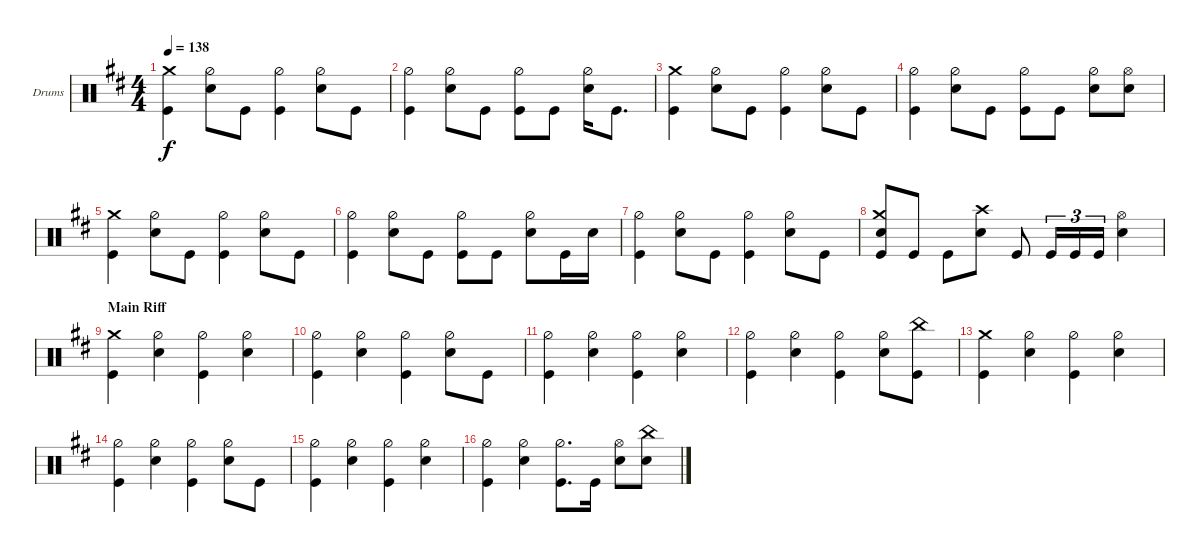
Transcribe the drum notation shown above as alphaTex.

\defaultSystemsLayout 4
\bracketExtendMode groupsimilarinstruments
\firstSystemTrackNameOrientation horizontal
\otherSystemsTrackNameOrientation horizontal
\track ("Drumkit" "Drums") {instrument percussion}
\staff {score}
\articulation defaults
\ts (4 4)
\tempo 138
\clef neutral
\ks d
("Kick (hit)" "Crash medium (hit)").4{dy f} ("Snare (hit) 2" "Hi-Hat (half)").8 "Kick (hit)".8 ("Kick (hit)" "Hi-Hat (half)").4 ("Snare (hit) 2" "Hi-Hat (half)").8 "Kick (hit)".8 |
("Kick (hit)" "Hi-Hat (half)").4 ("Snare (hit) 2" "Hi-Hat (half)").8 "Kick (hit)".8 ("Kick (hit)" "Hi-Hat (half)").8 "Kick (hit)".8 ("Snare (hit) 2" "Hi-Hat (half)").16 "Kick (hit)".8{d} |
("Kick (hit)" "Crash medium (hit)").4 ("Snare (hit) 2" "Hi-Hat (half)").8 "Kick (hit)".8 ("Kick (hit)" "Hi-Hat (half)").4 ("Snare (hit) 2" "Hi-Hat (half)").8 "Kick (hit)".8 |
("Kick (hit)" "Hi-Hat (half)").4 ("Snare (hit) 2" "Hi-Hat (half)").8 "Kick (hit)".8 ("Kick (hit)" "Hi-Hat (half)").8 "Kick (hit)".8 ("Snare (hit) 2" "Hi-Hat (half)").8 ("Snare (hit) 2" "Hi-Hat (open)").8 |
("Kick (hit)" "Crash medium (hit)").4 ("Snare (hit) 2" "Hi-Hat (half)").8 "Kick (hit)".8 ("Kick (hit)" "Hi-Hat (half)").4 ("Snare (hit) 2" "Hi-Hat (half)").8 "Kick (hit)".8 |
("Kick (hit)" "Hi-Hat (half)").4 ("Snare (hit) 2" "Hi-Hat (half)").8 "Kick (hit)".8 ("Kick (hit)" "Hi-Hat (half)").8 "Kick (hit)".8 ("Snare (hit) 2" "Hi-Hat (half)").8 "Kick (hit)".16 "Snare (hit) 2".16 |
("Kick (hit)" "Hi-Hat (half)").4 ("Snare (hit) 2" "Hi-Hat (half)").8 "Kick (hit)".8 ("Kick (hit)" "Hi-Hat (half)").4 ("Snare (hit) 2" "Hi-Hat (half)").8 "Kick (hit)".8 |
("Kick (hit)" "Crash medium (hit)" "Snare (hit) 2").8 "Kick (hit)".8 "Kick (hit)".8 ("Snare (hit) 2" "Crash high (hit)").8 "Kick (hit)".8 "Kick (hit)".16{tu (3 2)} "Kick (hit)".16{tu (3 2)} "Kick (hit)".16{tu (3 2)} ("Snare (hit) 2" "Hi-Hat (open)").4 |
\section ("" "Main Riff")
("Kick (hit)" "Crash medium (hit)").4 ("Hi-Hat (half)" "Snare (hit) 2").4 ("Hi-Hat (half)" "Kick (hit)").4 ("Hi-Hat (half)" "Snare (hit) 2").4 |
("Hi-Hat (half)" "Kick (hit)").4 ("Hi-Hat (half)" "Snare (hit) 2").4 ("Hi-Hat (half)" "Kick (hit)").4 ("Hi-Hat (half)" "Snare (hit) 2").8 "Kick (hit)".8 |
("Hi-Hat (half)" "Kick (hit)").4 ("Hi-Hat (half)" "Snare (hit) 2").4 ("Hi-Hat (half)" "Kick (hit)").4 ("Hi-Hat (half)" "Snare (hit) 2").4 |
("Hi-Hat (half)" "Kick (hit)").4 ("Hi-Hat (half)" "Snare (hit) 2").4 ("Hi-Hat (half)" "Kick (hit)").4 ("Hi-Hat (half)" "Snare (hit) 2").8 ("Kick (hit)" "China (hit)").8 |
("Kick (hit)" "Crash medium (hit)").4 ("Hi-Hat (half)" "Snare (hit) 2").4 ("Hi-Hat (half)" "Kick (hit)").4 ("Hi-Hat (half)" "Snare (hit) 2").4 |
("Hi-Hat (half)" "Kick (hit)").4 ("Hi-Hat (half)" "Snare (hit) 2").4 ("Hi-Hat (half)" "Kick (hit)").4 ("Hi-Hat (half)" "Snare (hit) 2").8 "Kick (hit)".8 |
("Hi-Hat (half)" "Kick (hit)").4 ("Hi-Hat (half)" "Snare (hit) 2").4 ("Hi-Hat (half)" "Kick (hit)").4 ("Hi-Hat (half)" "Snare (hit) 2").4 |
("Hi-Hat (half)" "Kick (hit)").4 ("Hi-Hat (half)" "Snare (hit) 2").4 ("Hi-Hat (half)" "Kick (hit)").8{d} "Kick (hit)".16 ("Snare (hit) 2" "Hi-Hat (open)").8 ("Snare (hit) 2" "China (hit)").8
